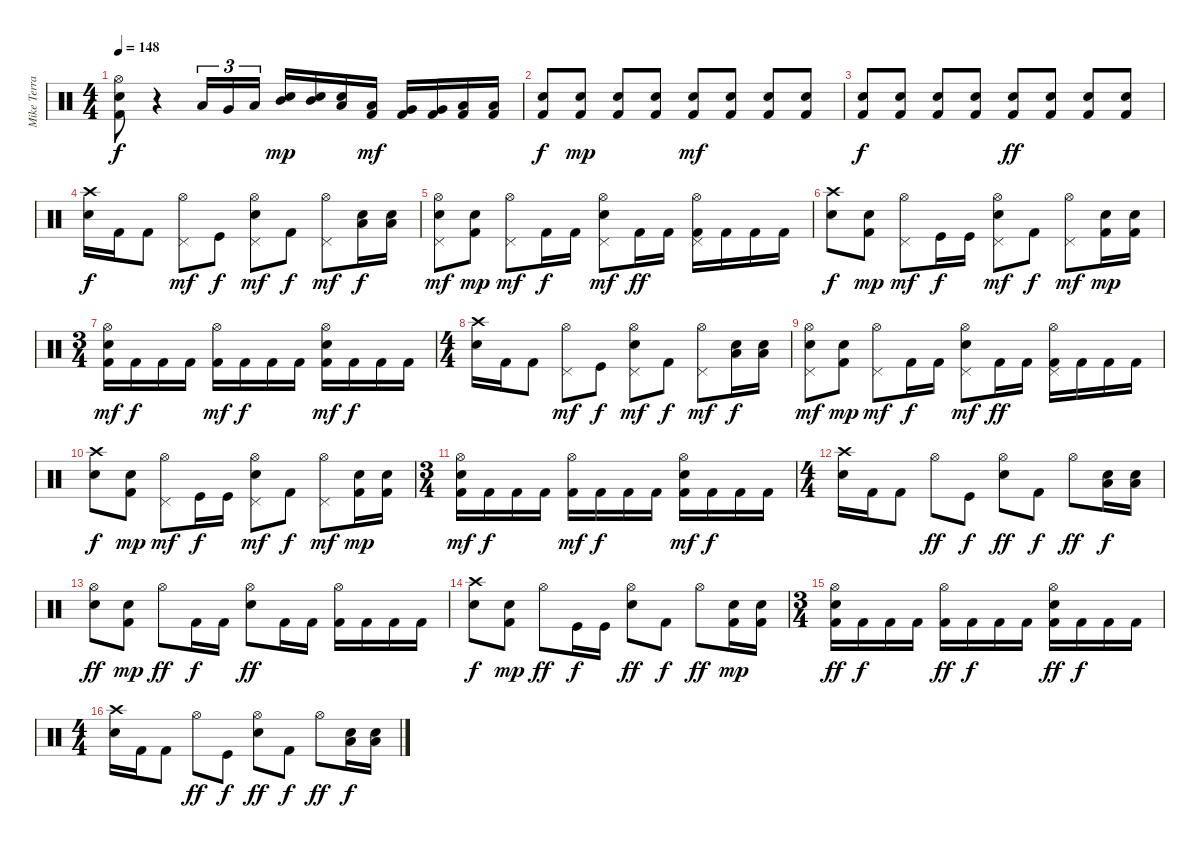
\track ("Mike Terrana" "Mike Terra") {instrument percussion}
\staff {score}
\articulation defaults
\ts (4 4)
\tempo 148
\clef neutral
\ks c
("Hi-Hat (open)" "Kick (hit) 2" "Snare (hit) 2").8{dy f} r.4 "Low Tom (hit)".16{tu (3 2)} "Very Low Tom (hit)".16{tu (3 2)} "Low Floor Tom (hit)".16{tu (3 2)} ("Mid Tom (hit)" "Snare (hit) 2").16{dy mp} ("Mid Tom (hit)" "Snare (hit) 2").16 ("Low Tom (hit)" "Snare (hit) 2").16 ("Low Tom (hit)" "Kick (hit) 2").16{dy mf} ("Very Low Tom (hit)" "Kick (hit) 2").16 ("Very Low Tom (hit)" "Kick (hit) 2").16 ("Low Floor Tom (hit)" "Kick (hit) 2").16 ("Low Floor Tom (hit)" "Kick (hit) 2").16 |
("Kick (hit) 2" "Snare (hit) 2").8{dy f} ("Kick (hit) 2" "Snare (hit) 2").8{dy mp} ("Kick (hit) 2" "Snare (hit) 2").8 ("Kick (hit) 2" "Snare (hit) 2").8 ("Kick (hit) 2" "Snare (hit) 2").8{dy mf} ("Kick (hit) 2" "Snare (hit) 2").8 ("Kick (hit) 2" "Snare (hit) 2").8 ("Kick (hit) 2" "Snare (hit) 2").8 |
("Kick (hit) 2" "Snare (hit) 2").8{dy f} ("Kick (hit) 2" "Snare (hit) 2").8 ("Kick (hit) 2" "Snare (hit) 2").8 ("Kick (hit) 2" "Snare (hit) 2").8 ("Kick (hit) 2" "Snare (hit) 2").8{dy ff} ("Kick (hit) 2" "Snare (hit) 2").8 ("Kick (hit) 2" "Snare (hit) 2").8 ("Kick (hit) 2" "Snare (hit) 2").8 |
("Crash high (hit)" "Snare (hit) 2").16{dy f} "Kick (hit) 2".16 "Kick (hit) 2".8 ("Pedal Hi-Hat (hit)" "Hi-Hat (open)").8{dy mf} "Kick (hit)".8{dy f} ("Pedal Hi-Hat (hit)" "Hi-Hat (open)" "Electric Snare (hit)").8{dy mf} "Kick (hit) 2".8{dy f} ("Pedal Hi-Hat (hit)" "Hi-Hat (open)").8{dy mf} ("Low Floor Tom (hit)" "Snare (hit) 2").16{dy f} ("Low Floor Tom (hit)" "Snare (hit) 2").16 |
("Pedal Hi-Hat (hit)" "Hi-Hat (open)" "Snare (hit) 2").8{dy mf} ("Kick (hit) 2" "Snare (hit) 2").8{dy mp} ("Pedal Hi-Hat (hit)" "Hi-Hat (open)").8{dy mf} "Kick (hit) 2".16{dy f} "Kick (hit) 2".16 ("Pedal Hi-Hat (hit)" "Hi-Hat (open)" "Electric Snare (hit)").8{dy mf} "Kick (hit) 2".16{dy ff} "Kick (hit) 2".16 ("Pedal Hi-Hat (hit)" "Hi-Hat (open)" "Kick (hit) 2").16 "Kick (hit) 2".16 "Kick (hit) 2".16 "Kick (hit) 2".16 |
("Crash high (hit)" "Snare (hit) 2").8{dy f} ("Kick (hit) 2" "Snare (hit) 2").8{dy mp} ("Pedal Hi-Hat (hit)" "Hi-Hat (open)").8{dy mf} "Kick (hit)".16{dy f} "Kick (hit)".16 ("Pedal Hi-Hat (hit)" "Hi-Hat (open)" "Electric Snare (hit)").8{dy mf} "Kick (hit) 2".8{dy f} ("Pedal Hi-Hat (hit)" "Hi-Hat (open)").8{dy mf} ("Kick (hit) 2" "Snare (hit) 2").16{dy mp} ("Kick (hit) 2" "Snare (hit) 2").16 |
\ts (3 4)
("Hi-Hat (open)" "Snare (hit) 2" "Kick (hit) 2").16{dy mf} "Kick (hit) 2".16{dy f} "Kick (hit) 2".16 "Kick (hit) 2".16 ("Hi-Hat (open)" "Kick (hit) 2").16{dy mf} "Kick (hit) 2".16{dy f} "Kick (hit) 2".16 "Kick (hit) 2".16 ("Hi-Hat (open)" "Electric Snare (hit)" "Kick (hit) 2").16{dy mf} "Kick (hit) 2".16{dy f} "Kick (hit) 2".16 "Kick (hit) 2".16 |
\ts (4 4)
("Crash high (hit)" "Snare (hit) 2").16 "Kick (hit) 2".16 "Kick (hit) 2".8 ("Pedal Hi-Hat (hit)" "Hi-Hat (open)").8{dy mf} "Kick (hit)".8{dy f} ("Pedal Hi-Hat (hit)" "Hi-Hat (open)" "Electric Snare (hit)").8{dy mf} "Kick (hit) 2".8{dy f} ("Pedal Hi-Hat (hit)" "Hi-Hat (open)").8{dy mf} ("Low Floor Tom (hit)" "Snare (hit) 2").16{dy f} ("Low Floor Tom (hit)" "Snare (hit) 2").16 |
("Pedal Hi-Hat (hit)" "Hi-Hat (open)" "Snare (hit) 2").8{dy mf} ("Kick (hit) 2" "Snare (hit) 2").8{dy mp} ("Pedal Hi-Hat (hit)" "Hi-Hat (open)").8{dy mf} "Kick (hit) 2".16{dy f} "Kick (hit) 2".16 ("Pedal Hi-Hat (hit)" "Hi-Hat (open)" "Electric Snare (hit)").8{dy mf} "Kick (hit) 2".16{dy ff} "Kick (hit) 2".16 ("Pedal Hi-Hat (hit)" "Hi-Hat (open)" "Kick (hit) 2").16 "Kick (hit) 2".16 "Kick (hit) 2".16 "Kick (hit) 2".16 |
("Crash high (hit)" "Snare (hit) 2").8{dy f} ("Kick (hit) 2" "Snare (hit) 2").8{dy mp} ("Pedal Hi-Hat (hit)" "Hi-Hat (open)").8{dy mf} "Kick (hit)".16{dy f} "Kick (hit)".16 ("Pedal Hi-Hat (hit)" "Hi-Hat (open)" "Electric Snare (hit)").8{dy mf} "Kick (hit) 2".8{dy f} ("Pedal Hi-Hat (hit)" "Hi-Hat (open)").8{dy mf} ("Kick (hit) 2" "Snare (hit) 2").16{dy mp} ("Kick (hit) 2" "Snare (hit) 2").16 |
\ts (3 4)
("Hi-Hat (open)" "Snare (hit) 2" "Kick (hit) 2").16{dy mf} "Kick (hit) 2".16{dy f} "Kick (hit) 2".16 "Kick (hit) 2".16 ("Hi-Hat (open)" "Kick (hit) 2").16{dy mf} "Kick (hit) 2".16{dy f} "Kick (hit) 2".16 "Kick (hit) 2".16 ("Hi-Hat (open)" "Electric Snare (hit)" "Kick (hit) 2").16{dy mf} "Kick (hit) 2".16{dy f} "Kick (hit) 2".16 "Kick (hit) 2".16 |
\ts (4 4)
("Crash high (hit)" "Snare (hit) 2").16 "Kick (hit) 2".16 "Kick (hit) 2".8 "Hi-Hat (open)".8{dy ff} "Kick (hit)".8{dy f} ("Hi-Hat (open)" "Electric Snare (hit)").8{dy ff} "Kick (hit) 2".8{dy f} "Hi-Hat (open)".8{dy ff} ("Low Floor Tom (hit)" "Snare (hit) 2").16{dy f} ("Low Floor Tom (hit)" "Snare (hit) 2").16 |
("Hi-Hat (open)" "Snare (hit) 2").8{dy ff} ("Kick (hit) 2" "Snare (hit) 2").8{dy mp} "Hi-Hat (open)".8{dy ff} "Kick (hit) 2".16{dy f} "Kick (hit) 2".16 ("Hi-Hat (open)" "Electric Snare (hit)").8{dy ff} "Kick (hit) 2".16 "Kick (hit) 2".16 ("Hi-Hat (open)" "Kick (hit) 2").16 "Kick (hit) 2".16 "Kick (hit) 2".16 "Kick (hit) 2".16 |
("Crash high (hit)" "Snare (hit) 2").8{dy f} ("Kick (hit) 2" "Snare (hit) 2").8{dy mp} "Hi-Hat (open)".8{dy ff} "Kick (hit)".16{dy f} "Kick (hit)".16 ("Hi-Hat (open)" "Electric Snare (hit)").8{dy ff} "Kick (hit) 2".8{dy f} "Hi-Hat (open)".8{dy ff} ("Kick (hit) 2" "Snare (hit) 2").16{dy mp} ("Kick (hit) 2" "Snare (hit) 2").16 |
\ts (3 4)
("Hi-Hat (open)" "Snare (hit) 2" "Kick (hit) 2").16{dy ff} "Kick (hit) 2".16{dy f} "Kick (hit) 2".16 "Kick (hit) 2".16 ("Hi-Hat (open)" "Kick (hit) 2").16{dy ff} "Kick (hit) 2".16{dy f} "Kick (hit) 2".16 "Kick (hit) 2".16 ("Hi-Hat (open)" "Electric Snare (hit)" "Kick (hit) 2").16{dy ff} "Kick (hit) 2".16{dy f} "Kick (hit) 2".16 "Kick (hit) 2".16 |
\ts (4 4)
("Crash high (hit)" "Snare (hit) 2").16 "Kick (hit) 2".16 "Kick (hit) 2".8 "Hi-Hat (open)".8{dy ff} "Kick (hit)".8{dy f} ("Hi-Hat (open)" "Electric Snare (hit)").8{dy ff} "Kick (hit) 2".8{dy f} "Hi-Hat (open)".8{dy ff} ("Low Floor Tom (hit)" "Snare (hit) 2").16{dy f} ("Low Floor Tom (hit)" "Snare (hit) 2").16
